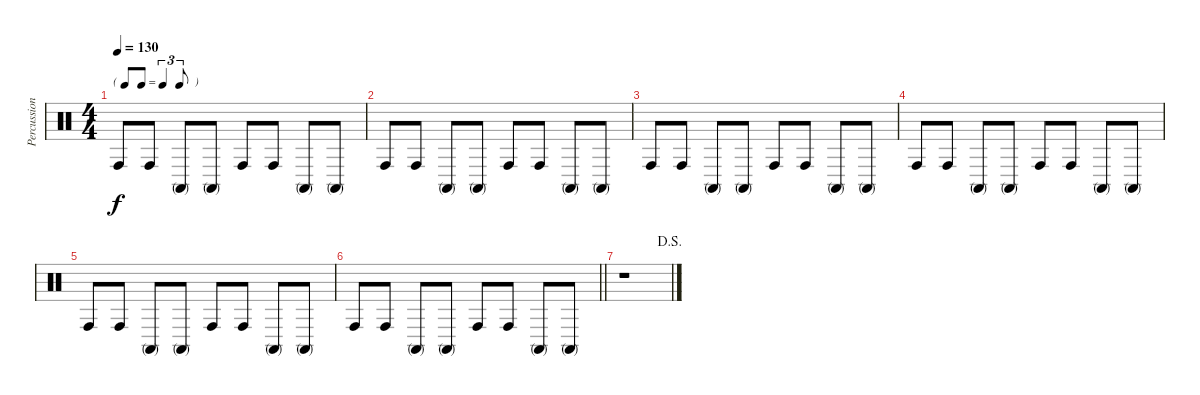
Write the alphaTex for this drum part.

\track ("Percussion" "Percussion") {instrument percussion}
\staff {score}
\articulation defaults
\ts (4 4)
\tf triplet8th
\tempo 130
\clef neutral
\ks c "Conga high (hit)".8{dy f} "Conga high (hit)".8 "Conga high (mute)".8 "Conga high (mute)".8 "Conga high (hit)".8 "Conga high (hit)".8 "Conga high (mute)".8 "Conga high (mute)".8
|
"Conga high (hit)".8 "Conga high (hit)".8 "Conga high (mute)".8 "Conga high (mute)".8 "Conga high (hit)".8 "Conga high (hit)".8 "Conga high (mute)".8 "Conga high (mute)".8 |
"Conga high (hit)".8 "Conga high (hit)".8 "Conga high (mute)".8 "Conga high (mute)".8 "Conga high (hit)".8 "Conga high (hit)".8 "Conga high (mute)".8 "Conga high (mute)".8 |
"Conga high (hit)".8 "Conga high (hit)".8 "Conga high (mute)".8 "Conga high (mute)".8 "Conga high (hit)".8 "Conga high (hit)".8 "Conga high (mute)".8 "Conga high (mute)".8 |
"Conga high (hit)".8 "Conga high (hit)".8 "Conga high (mute)".8 "Conga high (mute)".8 "Conga high (hit)".8 "Conga high (hit)".8 "Conga high (mute)".8 "Conga high (mute)".8 |
\barLineRight lightlight "Conga high (hit)".8 "Conga high (hit)".8 "Conga high (mute)".8 "Conga high (mute)".8 "Conga high (hit)".8 "Conga high (hit)".8 "Conga high (mute)".8 "Conga high (mute)".8
|
\jump dalsegno
r.1
